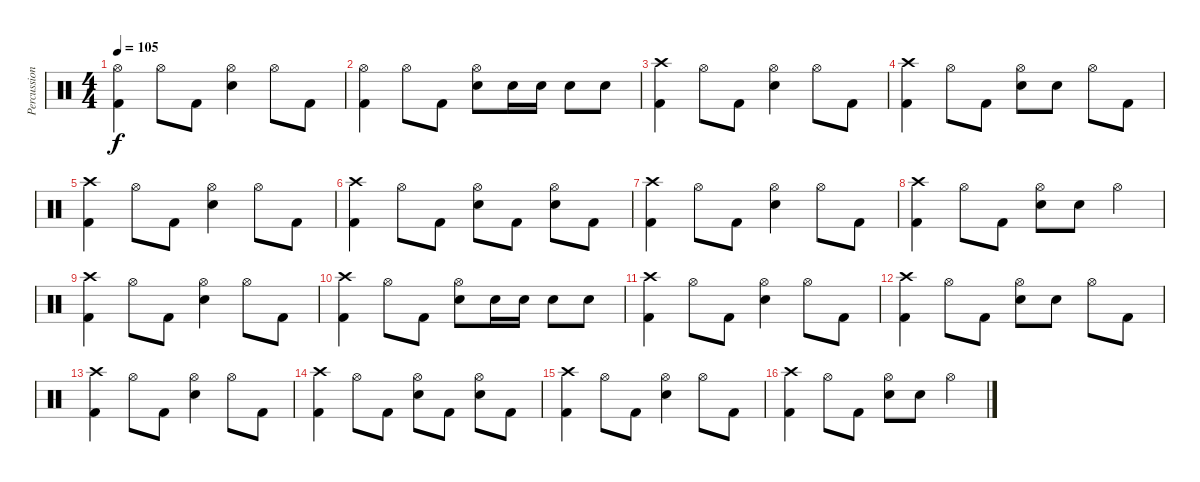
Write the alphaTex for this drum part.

\track ("Percussion" "Percussion") {instrument percussion}
\staff {score}
\articulation defaults
\ts (4 4)
\tempo 105
\clef neutral
\ks c
("Hi-Hat (open)" "Kick (hit) 2").4{dy f} "Hi-Hat (open)".8 "Kick (hit) 2".8 ("Hi-Hat (open)" "Electric Snare (hit)").4 "Hi-Hat (open)".8 "Kick (hit) 2".8 |
("Hi-Hat (open)" "Kick (hit) 2").4 "Hi-Hat (open)".8 "Kick (hit) 2".8 ("Hi-Hat (open)" "Electric Snare (hit)").8 "Electric Snare (hit)".16 "Electric Snare (hit)".16 "Electric Snare (hit)".8 "Electric Snare (hit)".8 |
("Crash high (hit)" "Kick (hit) 2").4 "Hi-Hat (open)".8 "Kick (hit) 2".8 ("Hi-Hat (open)" "Electric Snare (hit)").4 "Hi-Hat (open)".8 "Kick (hit) 2".8 |
("Crash high (hit)" "Kick (hit) 2").4 "Hi-Hat (open)".8 "Kick (hit) 2".8 ("Hi-Hat (open)" "Electric Snare (hit)").8 "Electric Snare (hit)".8 "Hi-Hat (open)".8 "Kick (hit) 2".8 |
("Crash high (hit)" "Kick (hit) 2").4 "Hi-Hat (open)".8 "Kick (hit) 2".8 ("Hi-Hat (open)" "Electric Snare (hit)").4 "Hi-Hat (open)".8 "Kick (hit) 2".8 |
("Crash high (hit)" "Kick (hit) 2").4 "Hi-Hat (open)".8 "Kick (hit) 2".8 ("Hi-Hat (open)" "Electric Snare (hit)").8 "Kick (hit) 2".8 ("Hi-Hat (open)" "Electric Snare (hit)").8 "Kick (hit) 2".8 |
("Crash high (hit)" "Kick (hit) 2").4 "Hi-Hat (open)".8 "Kick (hit) 2".8 ("Hi-Hat (open)" "Electric Snare (hit)").4 "Hi-Hat (open)".8 "Kick (hit) 2".8 |
("Crash high (hit)" "Kick (hit) 2").4 "Hi-Hat (open)".8 "Kick (hit) 2".8 ("Hi-Hat (open)" "Electric Snare (hit)").8 "Electric Snare (hit)".8 "Hi-Hat (open)".4 |
("Crash high (hit)" "Kick (hit) 2").4 "Hi-Hat (open)".8 "Kick (hit) 2".8 ("Hi-Hat (open)" "Electric Snare (hit)").4 "Hi-Hat (open)".8 "Kick (hit) 2".8 |
("Crash high (hit)" "Kick (hit) 2").4 "Hi-Hat (open)".8 "Kick (hit) 2".8 ("Hi-Hat (open)" "Electric Snare (hit)").8 "Electric Snare (hit)".16 "Electric Snare (hit)".16 "Electric Snare (hit)".8 "Electric Snare (hit)".8 |
("Crash high (hit)" "Kick (hit) 2").4 "Hi-Hat (open)".8 "Kick (hit) 2".8 ("Hi-Hat (open)" "Electric Snare (hit)").4 "Hi-Hat (open)".8 "Kick (hit) 2".8 |
("Crash high (hit)" "Kick (hit) 2").4 "Hi-Hat (open)".8 "Kick (hit) 2".8 ("Hi-Hat (open)" "Electric Snare (hit)").8 "Electric Snare (hit)".8 "Hi-Hat (open)".8 "Kick (hit) 2".8 |
("Crash high (hit)" "Kick (hit) 2").4 "Hi-Hat (open)".8 "Kick (hit) 2".8 ("Hi-Hat (open)" "Electric Snare (hit)").4 "Hi-Hat (open)".8 "Kick (hit) 2".8 |
("Crash high (hit)" "Kick (hit) 2").4 "Hi-Hat (open)".8 "Kick (hit) 2".8 ("Hi-Hat (open)" "Electric Snare (hit)").8 "Kick (hit) 2".8 ("Hi-Hat (open)" "Electric Snare (hit)").8 "Kick (hit) 2".8 |
("Crash high (hit)" "Kick (hit) 2").4 "Hi-Hat (open)".8 "Kick (hit) 2".8 ("Hi-Hat (open)" "Electric Snare (hit)").4 "Hi-Hat (open)".8 "Kick (hit) 2".8 |
("Crash high (hit)" "Kick (hit) 2").4 "Hi-Hat (open)".8 "Kick (hit) 2".8 ("Hi-Hat (open)" "Electric Snare (hit)").8 "Electric Snare (hit)".8 "Hi-Hat (open)".4
